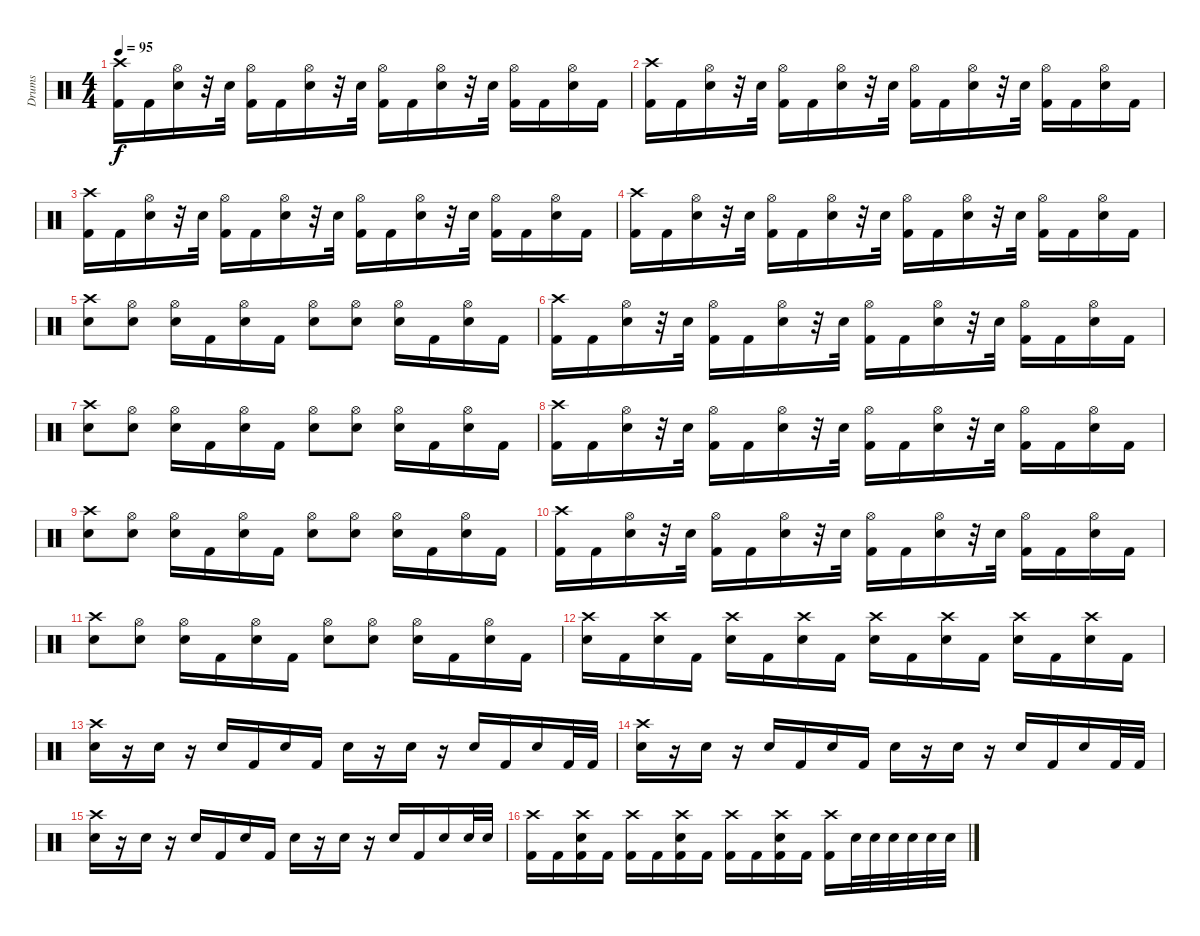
\track ("Drums" "Drums") {instrument percussion}
\staff {score}
\articulation defaults
\ts (4 4)
\tempo 95
\clef neutral
\ks c
("Crash high (hit)" "Kick (hit) 2").16{dy f} "Kick (hit) 2".16 ("Hi-Hat (open)" "Snare (hit) 2").16 r.32 "Snare (hit) 2".32 ("Hi-Hat (open)" "Kick (hit) 2").16 "Kick (hit) 2".16 ("Hi-Hat (open)" "Snare (hit) 2").16 r.32 "Snare (hit) 2".32 ("Hi-Hat (open)" "Kick (hit) 2").16 "Kick (hit) 2".16 ("Hi-Hat (open)" "Snare (hit) 2").16 r.32 "Snare (hit) 2".32 ("Hi-Hat (open)" "Kick (hit) 2").16 "Kick (hit) 2".16 ("Hi-Hat (open)" "Snare (hit) 2").16 "Kick (hit) 2".16 |
("Crash high (hit)" "Kick (hit) 2").16 "Kick (hit) 2".16 ("Hi-Hat (open)" "Snare (hit) 2").16 r.32 "Snare (hit) 2".32 ("Hi-Hat (open)" "Kick (hit) 2").16 "Kick (hit) 2".16 ("Hi-Hat (open)" "Snare (hit) 2").16 r.32 "Snare (hit) 2".32 ("Hi-Hat (open)" "Kick (hit) 2").16 "Kick (hit) 2".16 ("Hi-Hat (open)" "Snare (hit) 2").16 r.32 "Snare (hit) 2".32 ("Hi-Hat (open)" "Kick (hit) 2").16 "Kick (hit) 2".16 ("Hi-Hat (open)" "Snare (hit) 2").16 "Kick (hit) 2".16 |
("Crash high (hit)" "Kick (hit) 2").16 "Kick (hit) 2".16 ("Hi-Hat (open)" "Snare (hit) 2").16 r.32 "Snare (hit) 2".32 ("Hi-Hat (open)" "Kick (hit) 2").16 "Kick (hit) 2".16 ("Hi-Hat (open)" "Snare (hit) 2").16 r.32 "Snare (hit) 2".32 ("Hi-Hat (open)" "Kick (hit) 2").16 "Kick (hit) 2".16 ("Hi-Hat (open)" "Snare (hit) 2").16 r.32 "Snare (hit) 2".32 ("Hi-Hat (open)" "Kick (hit) 2").16 "Kick (hit) 2".16 ("Hi-Hat (open)" "Snare (hit) 2").16 "Kick (hit) 2".16 |
("Crash high (hit)" "Kick (hit) 2").16 "Kick (hit) 2".16 ("Hi-Hat (open)" "Snare (hit) 2").16 r.32 "Snare (hit) 2".32 ("Hi-Hat (open)" "Kick (hit) 2").16 "Kick (hit) 2".16 ("Hi-Hat (open)" "Snare (hit) 2").16 r.32 "Snare (hit) 2".32 ("Hi-Hat (open)" "Kick (hit) 2").16 "Kick (hit) 2".16 ("Hi-Hat (open)" "Snare (hit) 2").16 r.32 "Snare (hit) 2".32 ("Hi-Hat (open)" "Kick (hit) 2").16 "Kick (hit) 2".16 ("Hi-Hat (open)" "Snare (hit) 2").16 "Kick (hit) 2".16 |
("Crash high (hit)" "Snare (hit) 2").8 ("Hi-Hat (open)" "Snare (hit) 2").8 ("Hi-Hat (open)" "Snare (hit) 2").16 "Kick (hit) 2".16 ("Hi-Hat (open)" "Snare (hit) 2").16 "Kick (hit) 2".16 ("Hi-Hat (open)" "Snare (hit) 2").8 ("Hi-Hat (open)" "Snare (hit) 2").8 ("Hi-Hat (open)" "Snare (hit) 2").16 "Kick (hit) 2".16 ("Hi-Hat (open)" "Snare (hit) 2").16 "Kick (hit) 2".16 |
("Crash high (hit)" "Kick (hit) 2").16 "Kick (hit) 2".16 ("Hi-Hat (open)" "Snare (hit) 2").16 r.32 "Snare (hit) 2".32 ("Hi-Hat (open)" "Kick (hit) 2").16 "Kick (hit) 2".16 ("Hi-Hat (open)" "Snare (hit) 2").16 r.32 "Snare (hit) 2".32 ("Hi-Hat (open)" "Kick (hit) 2").16 "Kick (hit) 2".16 ("Hi-Hat (open)" "Snare (hit) 2").16 r.32 "Snare (hit) 2".32 ("Hi-Hat (open)" "Kick (hit) 2").16 "Kick (hit) 2".16 ("Hi-Hat (open)" "Snare (hit) 2").16 "Kick (hit) 2".16 |
("Crash high (hit)" "Snare (hit) 2").8 ("Hi-Hat (open)" "Snare (hit) 2").8 ("Hi-Hat (open)" "Snare (hit) 2").16 "Kick (hit) 2".16 ("Hi-Hat (open)" "Snare (hit) 2").16 "Kick (hit) 2".16 ("Hi-Hat (open)" "Snare (hit) 2").8 ("Hi-Hat (open)" "Snare (hit) 2").8 ("Hi-Hat (open)" "Snare (hit) 2").16 "Kick (hit) 2".16 ("Hi-Hat (open)" "Snare (hit) 2").16 "Kick (hit) 2".16 |
("Crash high (hit)" "Kick (hit) 2").16 "Kick (hit) 2".16 ("Hi-Hat (open)" "Snare (hit) 2").16 r.32 "Snare (hit) 2".32 ("Hi-Hat (open)" "Kick (hit) 2").16 "Kick (hit) 2".16 ("Hi-Hat (open)" "Snare (hit) 2").16 r.32 "Snare (hit) 2".32 ("Hi-Hat (open)" "Kick (hit) 2").16 "Kick (hit) 2".16 ("Hi-Hat (open)" "Snare (hit) 2").16 r.32 "Snare (hit) 2".32 ("Hi-Hat (open)" "Kick (hit) 2").16 "Kick (hit) 2".16 ("Hi-Hat (open)" "Snare (hit) 2").16 "Kick (hit) 2".16 |
("Crash high (hit)" "Snare (hit) 2").8 ("Hi-Hat (open)" "Snare (hit) 2").8 ("Hi-Hat (open)" "Snare (hit) 2").16 "Kick (hit) 2".16 ("Hi-Hat (open)" "Snare (hit) 2").16 "Kick (hit) 2".16 ("Hi-Hat (open)" "Snare (hit) 2").8 ("Hi-Hat (open)" "Snare (hit) 2").8 ("Hi-Hat (open)" "Snare (hit) 2").16 "Kick (hit) 2".16 ("Hi-Hat (open)" "Snare (hit) 2").16 "Kick (hit) 2".16 |
("Crash high (hit)" "Kick (hit) 2").16 "Kick (hit) 2".16 ("Hi-Hat (open)" "Snare (hit) 2").16 r.32 "Snare (hit) 2".32 ("Hi-Hat (open)" "Kick (hit) 2").16 "Kick (hit) 2".16 ("Hi-Hat (open)" "Snare (hit) 2").16 r.32 "Snare (hit) 2".32 ("Hi-Hat (open)" "Kick (hit) 2").16 "Kick (hit) 2".16 ("Hi-Hat (open)" "Snare (hit) 2").16 r.32 "Snare (hit) 2".32 ("Hi-Hat (open)" "Kick (hit) 2").16 "Kick (hit) 2".16 ("Hi-Hat (open)" "Snare (hit) 2").16 "Kick (hit) 2".16 |
("Crash high (hit)" "Snare (hit) 2").8 ("Hi-Hat (open)" "Snare (hit) 2").8 ("Hi-Hat (open)" "Snare (hit) 2").16 "Kick (hit) 2".16 ("Hi-Hat (open)" "Snare (hit) 2").16 "Kick (hit) 2".16 ("Hi-Hat (open)" "Snare (hit) 2").8 ("Hi-Hat (open)" "Snare (hit) 2").8 ("Hi-Hat (open)" "Snare (hit) 2").16 "Kick (hit) 2".16 ("Hi-Hat (open)" "Snare (hit) 2").16 "Kick (hit) 2".16 |
("Crash high (hit)" "Snare (hit) 2").16 "Kick (hit) 2".16 ("Crash high (hit)" "Snare (hit) 2").16 "Kick (hit) 2".16 ("Crash high (hit)" "Snare (hit) 2").16 "Kick (hit) 2".16 ("Crash high (hit)" "Snare (hit) 2").16 "Kick (hit) 2".16 ("Crash high (hit)" "Snare (hit) 2").16 "Kick (hit) 2".16 ("Crash high (hit)" "Snare (hit) 2").16 "Kick (hit) 2".16 ("Crash high (hit)" "Snare (hit) 2").16 "Kick (hit) 2".16 ("Crash high (hit)" "Snare (hit) 2").16 "Kick (hit) 2".16 |
("Crash high (hit)" "Snare (hit) 2").16 r.16 "Snare (hit) 2".16 r.16 "Snare (hit) 2".16 "Kick (hit) 2".16 "Snare (hit) 2".16 "Kick (hit) 2".16 "Snare (hit) 2".16 r.16 "Snare (hit) 2".16 r.16 "Snare (hit) 2".16 "Kick (hit) 2".16 "Snare (hit) 2".16 "Kick (hit) 2".32 "Kick (hit) 2".32 |
("Crash high (hit)" "Snare (hit) 2").16 r.16 "Snare (hit) 2".16 r.16 "Snare (hit) 2".16 "Kick (hit) 2".16 "Snare (hit) 2".16 "Kick (hit) 2".16 "Snare (hit) 2".16 r.16 "Snare (hit) 2".16 r.16 "Snare (hit) 2".16 "Kick (hit) 2".16 "Snare (hit) 2".16 "Kick (hit) 2".32 "Kick (hit) 2".32 |
("Crash high (hit)" "Snare (hit) 2").16 r.16 "Snare (hit) 2".16 r.16 "Snare (hit) 2".16 "Kick (hit) 2".16 "Snare (hit) 2".16 "Kick (hit) 2".16 "Snare (hit) 2".16 r.16 "Snare (hit) 2".16 r.16 "Snare (hit) 2".16 "Kick (hit) 2".16 "Snare (hit) 2".16 "Snare (hit) 2".32 "Snare (hit) 2".32 |
("Crash high (hit)" "Kick (hit) 2").16 "Kick (hit) 2".16 ("Crash high (hit)" "Kick (hit) 2" "Snare (hit) 2").16 "Kick (hit) 2".16 ("Crash high (hit)" "Kick (hit) 2").16 "Kick (hit) 2".16 ("Crash high (hit)" "Kick (hit) 2" "Snare (hit) 2").16 "Kick (hit) 2".16 ("Crash high (hit)" "Kick (hit) 2").16 "Kick (hit) 2".16 ("Crash high (hit)" "Kick (hit) 2" "Snare (hit) 2").16 "Kick (hit) 2".16 ("Crash high (hit)" "Kick (hit) 2").16 "Snare (hit) 2".32 "Snare (hit) 2".32 "Snare (hit) 2".32 "Snare (hit) 2".32 "Snare (hit) 2".32 "Snare (hit) 2".32
